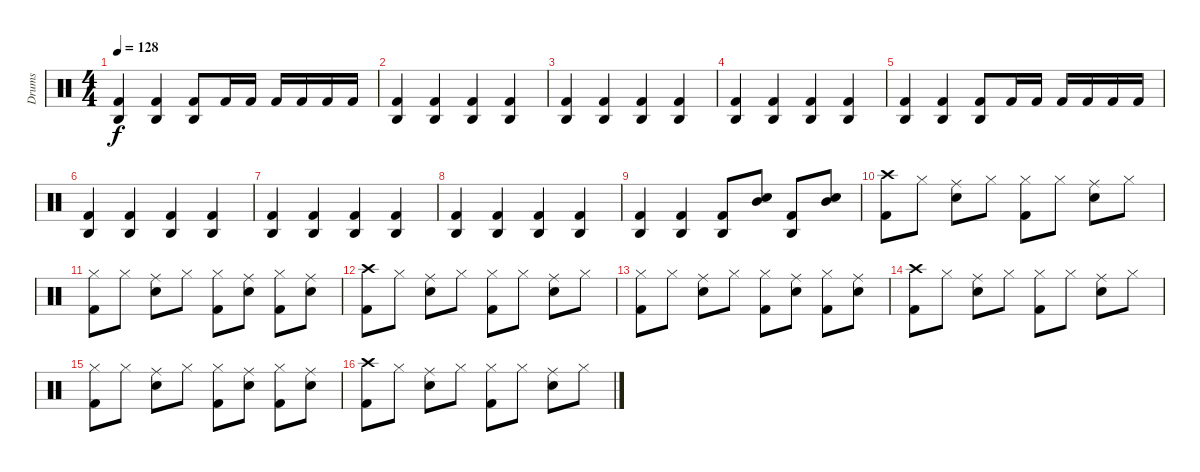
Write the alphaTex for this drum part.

\track ("Drums" "Drums") {instrument percussion}
\staff {score}
\articulation defaults
\ts (4 4)
\tempo 128
\clef neutral
\ks c
("Agogo high (hit)" "Kick (hit) 2").4{dy f} ("Agogo high (hit)" "Kick (hit) 2").4 ("Agogo high (hit)" "Kick (hit) 2").8 "Kick (hit) 2".16 "Kick (hit) 2".16 "Kick (hit) 2".16 "Kick (hit) 2".16 "Kick (hit) 2".16 "Kick (hit) 2".16 |
("Agogo high (hit)" "Kick (hit) 2").4 ("Agogo high (hit)" "Kick (hit) 2").4 ("Agogo high (hit)" "Kick (hit) 2").4 ("Agogo high (hit)" "Kick (hit) 2").4 |
("Agogo high (hit)" "Kick (hit) 2").4 ("Agogo high (hit)" "Kick (hit) 2").4 ("Agogo high (hit)" "Kick (hit) 2").4 ("Agogo high (hit)" "Kick (hit) 2").4 |
("Agogo high (hit)" "Kick (hit) 2").4 ("Agogo high (hit)" "Kick (hit) 2").4 ("Agogo high (hit)" "Kick (hit) 2").4 ("Agogo high (hit)" "Kick (hit) 2").4 |
("Agogo high (hit)" "Kick (hit) 2").4 ("Agogo high (hit)" "Kick (hit) 2").4 ("Agogo high (hit)" "Kick (hit) 2").8 "Kick (hit) 2".16 "Kick (hit) 2".16 "Kick (hit) 2".16 "Kick (hit) 2".16 "Kick (hit) 2".16 "Kick (hit) 2".16 |
("Agogo high (hit)" "Kick (hit) 2").4 ("Agogo high (hit)" "Kick (hit) 2").4 ("Agogo high (hit)" "Kick (hit) 2").4 ("Agogo high (hit)" "Kick (hit) 2").4 |
("Agogo high (hit)" "Kick (hit) 2").4 ("Agogo high (hit)" "Kick (hit) 2").4 ("Agogo high (hit)" "Kick (hit) 2").4 ("Agogo high (hit)" "Kick (hit) 2").4 |
("Agogo high (hit)" "Kick (hit) 2").4 ("Agogo high (hit)" "Kick (hit) 2").4 ("Agogo high (hit)" "Kick (hit) 2").4 ("Agogo high (hit)" "Kick (hit) 2").4 |
("Agogo high (hit)" "Kick (hit) 2").4 ("Agogo high (hit)" "Kick (hit) 2").4 ("Agogo high (hit)" "Kick (hit) 2").8 ("Mid Tom (hit)" "Snare (hit) 2").8 ("Agogo high (hit)" "Kick (hit) 2").8 ("Mid Tom (hit)" "Snare (hit) 2").8 |
("Crash high (hit)" "Kick (hit) 2").8 "Hi-Hat (closed)".8 ("Ride (middle)" "Snare (hit) 2").8 "Hi-Hat (closed)".8 ("Hi-Hat (closed)" "Kick (hit) 2").8 "Hi-Hat (closed)".8 ("Ride (middle)" "Snare (hit) 2").8 "Hi-Hat (closed)".8 |
("Hi-Hat (closed)" "Kick (hit) 2").8 "Hi-Hat (closed)".8 ("Ride (middle)" "Snare (hit) 2").8 "Hi-Hat (closed)".8 ("Hi-Hat (closed)" "Kick (hit) 2").8 ("Ride (middle)" "Snare (hit) 2").8 ("Hi-Hat (closed)" "Kick (hit) 2").8 ("Ride (middle)" "Snare (hit) 2").8 |
("Crash high (hit)" "Kick (hit) 2").8 "Hi-Hat (closed)".8 ("Ride (middle)" "Snare (hit) 2").8 "Hi-Hat (closed)".8 ("Hi-Hat (closed)" "Kick (hit) 2").8 "Hi-Hat (closed)".8 ("Ride (middle)" "Snare (hit) 2").8 "Hi-Hat (closed)".8 |
("Hi-Hat (closed)" "Kick (hit) 2").8 "Hi-Hat (closed)".8 ("Ride (middle)" "Snare (hit) 2").8 "Hi-Hat (closed)".8 ("Hi-Hat (closed)" "Kick (hit) 2").8 ("Ride (middle)" "Snare (hit) 2").8 ("Hi-Hat (closed)" "Kick (hit) 2").8 ("Ride (middle)" "Snare (hit) 2").8 |
("Crash high (hit)" "Kick (hit) 2").8 "Hi-Hat (closed)".8 ("Ride (middle)" "Snare (hit) 2").8 "Hi-Hat (closed)".8 ("Hi-Hat (closed)" "Kick (hit) 2").8 "Hi-Hat (closed)".8 ("Ride (middle)" "Snare (hit) 2").8 "Hi-Hat (closed)".8 |
("Hi-Hat (closed)" "Kick (hit) 2").8 "Hi-Hat (closed)".8 ("Ride (middle)" "Snare (hit) 2").8 "Hi-Hat (closed)".8 ("Hi-Hat (closed)" "Kick (hit) 2").8 ("Ride (middle)" "Snare (hit) 2").8 ("Hi-Hat (closed)" "Kick (hit) 2").8 ("Ride (middle)" "Snare (hit) 2").8 |
("Crash high (hit)" "Kick (hit) 2").8 "Hi-Hat (closed)".8 ("Ride (middle)" "Snare (hit) 2").8 "Hi-Hat (closed)".8 ("Hi-Hat (closed)" "Kick (hit) 2").8 "Hi-Hat (closed)".8 ("Ride (middle)" "Snare (hit) 2").8 "Hi-Hat (closed)".8
